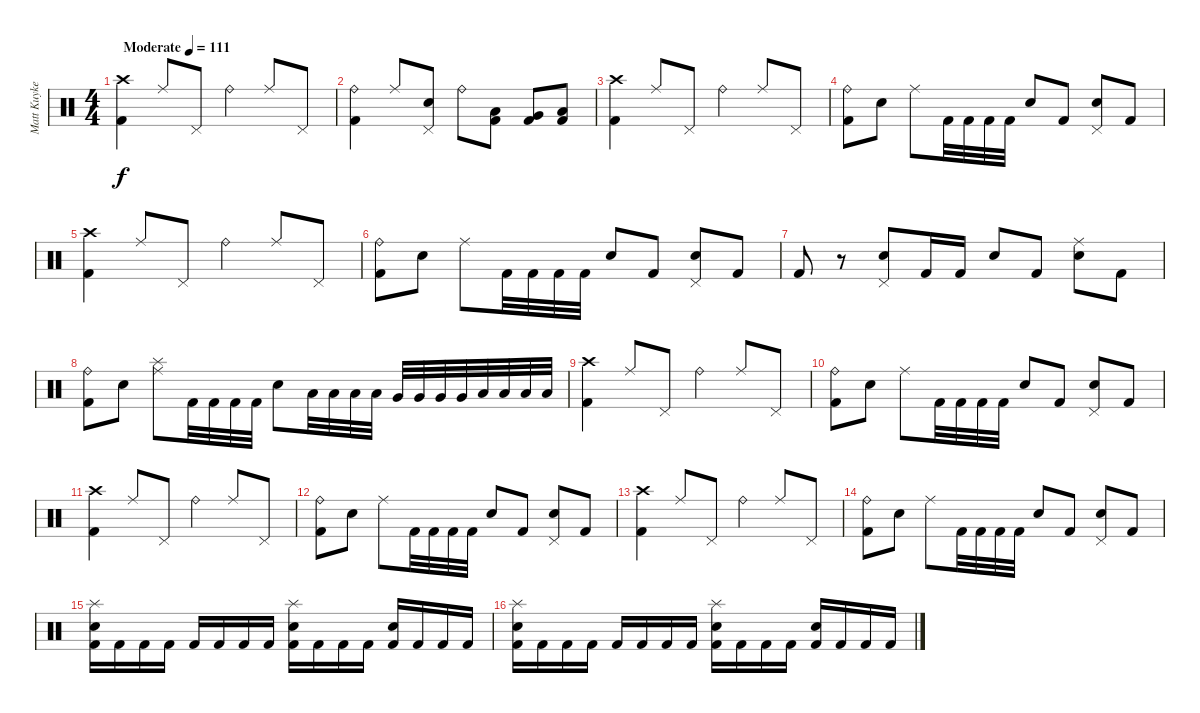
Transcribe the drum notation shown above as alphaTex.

\track ("Matt Kuykendall (Drums)" "Matt Kuyke") {instrument percussion}
\staff {score}
\articulation defaults
\ts (4 4)
\tempo (111 "Moderate")
\clef neutral
\ks c
("Crash high (hit)" "Kick (hit) 2").4{dy f} "Ride (middle)".8 "Pedal Hi-Hat (hit)".8 "Ride (bell)".4 "Ride (middle)".8 "Pedal Hi-Hat (hit)".8 |
("Ride (bell)" "Kick (hit) 2").4 "Ride (middle)".8 ("Pedal Hi-Hat (hit)" "Snare (hit) 2").8 "Ride (bell)".8 ("Low Tom (hit)" "Kick (hit) 2").8 ("Very Low Tom (hit)" "Kick (hit) 2").8 ("Low Floor Tom (hit)" "Kick (hit) 2").8 |
("Crash high (hit)" "Kick (hit) 2").4 "Ride (middle)".8 "Pedal Hi-Hat (hit)".8 "Ride (bell)".4 "Ride (middle)".8 "Pedal Hi-Hat (hit)".8 |
("Ride (bell)" "Kick (hit) 2").8 "Snare (hit) 2".8 "Ride (middle)".8 "Kick (hit) 2".32 "Kick (hit) 2".32 "Kick (hit) 2".32 "Kick (hit) 2".32 "Snare (hit) 2".8 "Kick (hit) 2".8 ("Pedal Hi-Hat (hit)" "Snare (hit) 2").8 "Kick (hit) 2".8 |
("Crash high (hit)" "Kick (hit) 2").4 "Ride (middle)".8 "Pedal Hi-Hat (hit)".8 "Ride (bell)".4 "Ride (middle)".8 "Pedal Hi-Hat (hit)".8 |
("Ride (bell)" "Kick (hit) 2").8 "Snare (hit) 2".8 "Ride (middle)".8 "Kick (hit) 2".32 "Kick (hit) 2".32 "Kick (hit) 2".32 "Kick (hit) 2".32 "Snare (hit) 2".8 "Kick (hit) 2".8 ("Pedal Hi-Hat (hit)" "Snare (hit) 2").8 "Kick (hit) 2".8 |
"Kick (hit) 2".8 r.8 ("Pedal Hi-Hat (hit)" "Snare (hit) 2").8 "Kick (hit) 2".16 "Kick (hit) 2".16 "Snare (hit) 2".8 "Kick (hit) 2".8 ("Ride (middle)" "Snare (hit) 2").8 "Kick (hit) 2".8 |
("Ride (bell)" "Kick (hit) 2").8 "Snare (hit) 2".8 ("Splash (hit)" "Ride (middle)").8 "Kick (hit) 2".32 "Kick (hit) 2".32 "Kick (hit) 2".32 "Kick (hit) 2".32 "Snare (hit) 2".8 "Low Tom (hit)".32 "Low Tom (hit)".32 "Low Tom (hit)".32 "Low Tom (hit)".32 "Very Low Tom (hit)".32 "Very Low Tom (hit)".32 "Very Low Tom (hit)".32 "Very Low Tom (hit)".32 "Low Floor Tom (hit)".32 "Low Floor Tom (hit)".32 "Low Floor Tom (hit)".32 "Low Floor Tom (hit)".32 |
("Crash high (hit)" "Kick (hit) 2").4 "Ride (middle)".8 "Pedal Hi-Hat (hit)".8 "Ride (bell)".4 "Ride (middle)".8 "Pedal Hi-Hat (hit)".8 |
("Ride (bell)" "Kick (hit) 2").8 "Snare (hit) 2".8 "Ride (middle)".8 "Kick (hit) 2".32 "Kick (hit) 2".32 "Kick (hit) 2".32 "Kick (hit) 2".32 "Snare (hit) 2".8 "Kick (hit) 2".8 ("Pedal Hi-Hat (hit)" "Snare (hit) 2").8 "Kick (hit) 2".8 |
("Crash high (hit)" "Kick (hit) 2").4 "Ride (middle)".8 "Pedal Hi-Hat (hit)".8 "Ride (bell)".4 "Ride (middle)".8 "Pedal Hi-Hat (hit)".8 |
("Ride (bell)" "Kick (hit) 2").8 "Snare (hit) 2".8 "Ride (middle)".8 "Kick (hit) 2".32 "Kick (hit) 2".32 "Kick (hit) 2".32 "Kick (hit) 2".32 "Snare (hit) 2".8 "Kick (hit) 2".8 ("Pedal Hi-Hat (hit)" "Snare (hit) 2").8 "Kick (hit) 2".8 |
("Crash high (hit)" "Kick (hit) 2").4 "Ride (middle)".8 "Pedal Hi-Hat (hit)".8 "Ride (bell)".4 "Ride (middle)".8 "Pedal Hi-Hat (hit)".8 |
("Ride (bell)" "Kick (hit) 2").8 "Snare (hit) 2".8 "Ride (middle)".8 "Kick (hit) 2".32 "Kick (hit) 2".32 "Kick (hit) 2".32 "Kick (hit) 2".32 "Snare (hit) 2".8 "Kick (hit) 2".8 ("Pedal Hi-Hat (hit)" "Snare (hit) 2").8 "Kick (hit) 2".8 |
("Splash (hit)" "Snare (hit) 2" "Kick (hit) 2").16 "Kick (hit) 2".16 "Kick (hit) 2".16 "Kick (hit) 2".16 "Kick (hit) 2".16 "Kick (hit) 2".16 "Kick (hit) 2".16 "Kick (hit) 2".16 ("Splash (hit)" "Snare (hit) 2" "Kick (hit) 2").16 "Kick (hit) 2".16 "Kick (hit) 2".16 "Kick (hit) 2".16 ("Snare (hit) 2" "Kick (hit) 2").16 "Kick (hit) 2".16 "Kick (hit) 2".16 "Kick (hit) 2".16 |
("Splash (hit)" "Snare (hit) 2" "Kick (hit) 2").16 "Kick (hit) 2".16 "Kick (hit) 2".16 "Kick (hit) 2".16 "Kick (hit) 2".16 "Kick (hit) 2".16 "Kick (hit) 2".16 "Kick (hit) 2".16 ("Splash (hit)" "Snare (hit) 2" "Kick (hit) 2").16 "Kick (hit) 2".16 "Kick (hit) 2".16 "Kick (hit) 2".16 ("Snare (hit) 2" "Kick (hit) 2").16 "Kick (hit) 2".16 "Kick (hit) 2".16 "Kick (hit) 2".16
